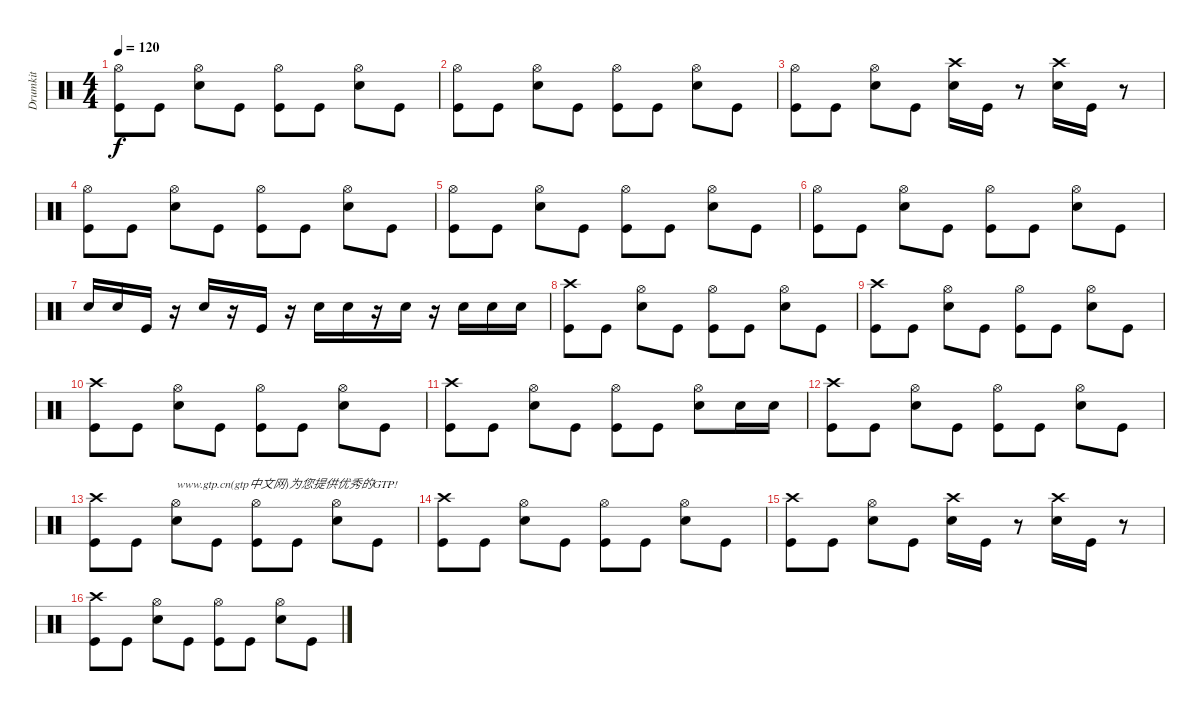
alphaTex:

\track ("Drumkit" "Drumkit") {instrument percussion}
\staff {score}
\articulation defaults
\ts (4 4)
\tempo 120
\clef neutral
\ks c
("Kick (hit)" "Hi-Hat (open)").8{dy f} "Kick (hit)".8 ("Snare (hit) 2" "Hi-Hat (open)").8 "Kick (hit)".8 ("Kick (hit)" "Hi-Hat (open)").8 "Kick (hit)".8 ("Snare (hit) 2" "Hi-Hat (open)").8 "Kick (hit)".8 |
("Kick (hit)" "Hi-Hat (open)").8 "Kick (hit)".8 ("Snare (hit) 2" "Hi-Hat (open)").8 "Kick (hit)".8 ("Kick (hit)" "Hi-Hat (open)").8 "Kick (hit)".8 ("Snare (hit) 2" "Hi-Hat (open)").8 "Kick (hit)".8 |
("Kick (hit)" "Hi-Hat (open)").8 "Kick (hit)".8 ("Snare (hit) 2" "Hi-Hat (open)").8 "Kick (hit)".8 ("Crash high (hit)" "Snare (hit) 2").16 "Kick (hit)".16 r.8 ("Crash high (hit)" "Snare (hit) 2").16 "Kick (hit)".16 r.8 |
("Kick (hit)" "Hi-Hat (open)").8 "Kick (hit)".8 ("Snare (hit) 2" "Hi-Hat (open)").8 "Kick (hit)".8 ("Kick (hit)" "Hi-Hat (open)").8 "Kick (hit)".8 ("Snare (hit) 2" "Hi-Hat (open)").8 "Kick (hit)".8 |
("Kick (hit)" "Hi-Hat (open)").8 "Kick (hit)".8 ("Snare (hit) 2" "Hi-Hat (open)").8 "Kick (hit)".8 ("Kick (hit)" "Hi-Hat (open)").8 "Kick (hit)".8 ("Snare (hit) 2" "Hi-Hat (open)").8 "Kick (hit)".8 |
("Kick (hit)" "Hi-Hat (open)").8 "Kick (hit)".8 ("Snare (hit) 2" "Hi-Hat (open)").8 "Kick (hit)".8 ("Kick (hit)" "Hi-Hat (open)").8 "Kick (hit)".8 ("Snare (hit) 2" "Hi-Hat (open)").8 "Kick (hit)".8 |
"Snare (hit) 2".16 "Snare (hit) 2".16 "Kick (hit)".16 r.16 "Snare (hit) 2".16 r.16 "Kick (hit)".16 r.16 "Snare (hit) 2".16 "Snare (hit) 2".16 r.16 "Snare (hit) 2".16 r.16 "Snare (hit) 2".16 "Snare (hit) 2".16 "Snare (hit) 2".16 |
("Kick (hit)" "Crash high (hit)").8 "Kick (hit)".8 ("Snare (hit) 2" "Hi-Hat (open)").8 "Kick (hit)".8 ("Kick (hit)" "Hi-Hat (open)").8 "Kick (hit)".8 ("Snare (hit) 2" "Hi-Hat (open)").8 "Kick (hit)".8 |
("Kick (hit)" "Crash high (hit)").8 "Kick (hit)".8 ("Snare (hit) 2" "Hi-Hat (open)").8 "Kick (hit)".8 ("Kick (hit)" "Hi-Hat (open)").8 "Kick (hit)".8 ("Snare (hit) 2" "Hi-Hat (open)").8 "Kick (hit)".8 |
("Kick (hit)" "Crash high (hit)").8 "Kick (hit)".8 ("Snare (hit) 2" "Hi-Hat (open)").8 "Kick (hit)".8 ("Kick (hit)" "Hi-Hat (open)").8 "Kick (hit)".8 ("Snare (hit) 2" "Hi-Hat (open)").8 "Kick (hit)".8 |
("Kick (hit)" "Crash high (hit)").8 "Kick (hit)".8 ("Snare (hit) 2" "Hi-Hat (open)").8 "Kick (hit)".8 ("Kick (hit)" "Hi-Hat (open)").8 "Kick (hit)".8 ("Snare (hit) 2" "Hi-Hat (open)").8 "Snare (hit) 2".16 "Snare (hit) 2".16 |
("Kick (hit)" "Crash high (hit)").8 "Kick (hit)".8 ("Snare (hit) 2" "Hi-Hat (open)").8 "Kick (hit)".8 ("Kick (hit)" "Hi-Hat (open)").8 "Kick (hit)".8 ("Snare (hit) 2" "Hi-Hat (open)").8 "Kick (hit)".8 |
("Kick (hit)" "Crash high (hit)").8 "Kick (hit)".8 ("Snare (hit) 2" "Hi-Hat (open)").8{txt "www.gtp.cn(gtp中文网)为您提供优秀的GTP!"} "Kick (hit)".8 ("Kick (hit)" "Hi-Hat (open)").8 "Kick (hit)".8 ("Snare (hit) 2" "Hi-Hat (open)").8 "Kick (hit)".8 |
("Kick (hit)" "Crash high (hit)").8 "Kick (hit)".8 ("Snare (hit) 2" "Hi-Hat (open)").8 "Kick (hit)".8 ("Kick (hit)" "Hi-Hat (open)").8 "Kick (hit)".8 ("Snare (hit) 2" "Hi-Hat (open)").8 "Kick (hit)".8 |
("Kick (hit)" "Crash high (hit)").8 "Kick (hit)".8 ("Snare (hit) 2" "Hi-Hat (open)").8 "Kick (hit)".8 ("Crash high (hit)" "Snare (hit) 2").16 "Kick (hit)".16 r.8 ("Crash high (hit)" "Snare (hit) 2").16 "Kick (hit)".16 r.8 |
("Kick (hit)" "Crash high (hit)").8 "Kick (hit)".8 ("Snare (hit) 2" "Hi-Hat (open)").8 "Kick (hit)".8 ("Kick (hit)" "Hi-Hat (open)").8 "Kick (hit)".8 ("Snare (hit) 2" "Hi-Hat (open)").8 "Kick (hit)".8
